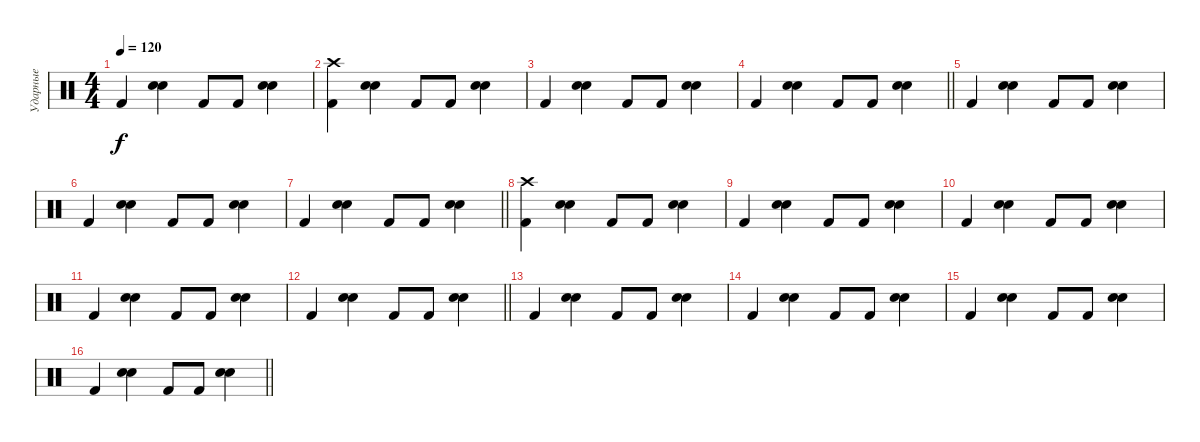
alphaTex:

\track ("Ударные" "Ударные") {instrument percussion}
\staff {score}
\articulation defaults
\ts (4 4)
\tempo 120
\clef neutral
\ks c "Kick (hit) 2".4{dy f}
("Snare (hit) 2" "Electric Snare (hit)").4 "Kick (hit) 2".8 "Kick (hit) 2".8 ("Snare (hit) 2" "Electric Snare (hit)").4 |
("Kick (hit) 2" "Crash high (hit)").4 ("Snare (hit) 2" "Electric Snare (hit)").4 "Kick (hit) 2".8 "Kick (hit) 2".8 ("Snare (hit) 2" "Electric Snare (hit)").4 |
"Kick (hit) 2".4 ("Snare (hit) 2" "Electric Snare (hit)").4 "Kick (hit) 2".8 "Kick (hit) 2".8 ("Snare (hit) 2" "Electric Snare (hit)").4 |
\barLineRight lightlight "Kick (hit) 2".4
("Snare (hit) 2" "Electric Snare (hit)").4 "Kick (hit) 2".8 "Kick (hit) 2".8 ("Snare (hit) 2" "Electric Snare (hit)").4 |
"Kick (hit) 2".4 ("Snare (hit) 2" "Electric Snare (hit)").4 "Kick (hit) 2".8 "Kick (hit) 2".8 ("Snare (hit) 2" "Electric Snare (hit)").4 |
"Kick (hit) 2".4 ("Snare (hit) 2" "Electric Snare (hit)").4 "Kick (hit) 2".8 "Kick (hit) 2".8 ("Snare (hit) 2" "Electric Snare (hit)").4 |
\barLineRight lightlight "Kick (hit) 2".4
("Snare (hit) 2" "Electric Snare (hit)").4 "Kick (hit) 2".8 "Kick (hit) 2".8 ("Snare (hit) 2" "Electric Snare (hit)").4 |
("Kick (hit) 2" "Crash high (hit)").4 ("Snare (hit) 2" "Electric Snare (hit)").4 "Kick (hit) 2".8 "Kick (hit) 2".8 ("Snare (hit) 2" "Electric Snare (hit)").4 |
"Kick (hit) 2".4 ("Snare (hit) 2" "Electric Snare (hit)").4 "Kick (hit) 2".8 "Kick (hit) 2".8 ("Snare (hit) 2" "Electric Snare (hit)").4 |
"Kick (hit) 2".4 ("Snare (hit) 2" "Electric Snare (hit)").4 "Kick (hit) 2".8 "Kick (hit) 2".8 ("Snare (hit) 2" "Electric Snare (hit)").4 |
"Kick (hit) 2".4 ("Snare (hit) 2" "Electric Snare (hit)").4 "Kick (hit) 2".8 "Kick (hit) 2".8 ("Snare (hit) 2" "Electric Snare (hit)").4 |
\barLineRight lightlight "Kick (hit) 2".4
("Snare (hit) 2" "Electric Snare (hit)").4 "Kick (hit) 2".8 "Kick (hit) 2".8 ("Snare (hit) 2" "Electric Snare (hit)").4 |
"Kick (hit) 2".4 ("Snare (hit) 2" "Electric Snare (hit)").4 "Kick (hit) 2".8 "Kick (hit) 2".8 ("Snare (hit) 2" "Electric Snare (hit)").4 |
"Kick (hit) 2".4 ("Snare (hit) 2" "Electric Snare (hit)").4 "Kick (hit) 2".8 "Kick (hit) 2".8 ("Snare (hit) 2" "Electric Snare (hit)").4 |
"Kick (hit) 2".4 ("Snare (hit) 2" "Electric Snare (hit)").4 "Kick (hit) 2".8 "Kick (hit) 2".8 ("Snare (hit) 2" "Electric Snare (hit)").4 |
\barLineRight lightlight "Kick (hit) 2".4
("Snare (hit) 2" "Electric Snare (hit)").4 "Kick (hit) 2".8 "Kick (hit) 2".8 ("Snare (hit) 2" "Electric Snare (hit)").4
